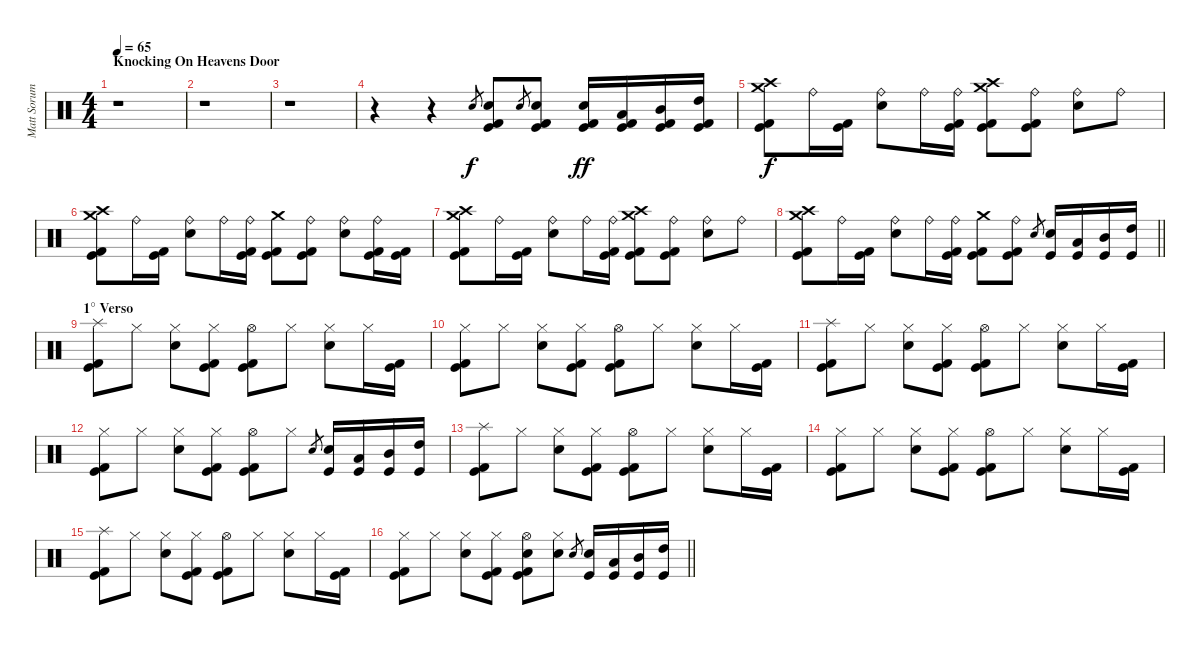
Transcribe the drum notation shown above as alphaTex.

\track ("Matt Sorum" "Matt Sorum") {instrument percussion}
\staff {score}
\articulation defaults
\ts (4 4)
\section ("" "Knocking On Heavens Door")
\tempo 65
\clef neutral
\ks c
r.1{dy f} |
r.1 |
r.1 |
r.4 r.4 "Electric Snare (hit)".8{gr} ("Electric Snare (hit)" "Kick (hit) 2" "Kick (hit)").8 "Electric Snare (hit)".8{gr} ("Electric Snare (hit)" "Kick (hit) 2" "Kick (hit)").8 ("Electric Snare (hit)" "Kick (hit) 2" "Kick (hit)").16{dy ff} ("Low Tom (hit)" "Kick (hit) 2" "Kick (hit)").16 ("Mid Tom (hit)" "Kick (hit) 2" "Kick (hit)").16 ("High Tom (hit)" "Kick (hit) 2" "Kick (hit)").16 |
("Crash medium (hit)" "Crash high (hit)" "Kick (hit) 2" "Kick (hit)").8{dy f} "Ride (bell)".16 ("Kick (hit) 2" "Kick (hit)").16 ("Ride (bell)" "Electric Snare (hit)").8 "Ride (bell)".16 ("Ride (bell)" "Kick (hit) 2" "Kick (hit)").16 ("Crash medium (hit)" "Crash high (hit)" "Kick (hit) 2" "Kick (hit)").8 ("Ride (bell)" "Kick (hit) 2" "Kick (hit)").8 ("Ride (bell)" "Electric Snare (hit)").8 "Ride (bell)".8 |
("Crash medium (hit)" "Crash high (hit)" "Kick (hit) 2" "Kick (hit)").8 "Ride (bell)".16 ("Kick (hit) 2" "Kick (hit)").16 ("Ride (bell)" "Electric Snare (hit)").8 "Ride (bell)".16 ("Ride (bell)" "Kick (hit) 2" "Kick (hit)").16 ("Crash medium (hit)" "Kick (hit) 2" "Kick (hit)").8 ("Ride (bell)" "Kick (hit) 2" "Kick (hit)").8 ("Ride (bell)" "Electric Snare (hit)").8 ("Ride (bell)" "Kick (hit) 2" "Kick (hit)").16 ("Kick (hit) 2" "Kick (hit)").16 |
("Crash medium (hit)" "Crash high (hit)" "Kick (hit) 2" "Kick (hit)").8 "Ride (bell)".16 ("Kick (hit) 2" "Kick (hit)").16 ("Ride (bell)" "Electric Snare (hit)").8 "Ride (bell)".16 ("Ride (bell)" "Kick (hit) 2" "Kick (hit)").16 ("Crash medium (hit)" "Crash high (hit)" "Kick (hit) 2" "Kick (hit)").8 ("Ride (bell)" "Kick (hit) 2" "Kick (hit)").8 ("Ride (bell)" "Electric Snare (hit)").8 "Ride (bell)".8 |
\barLineRight lightlight
("Crash medium (hit)" "Crash high (hit)" "Kick (hit) 2" "Kick (hit)").8 "Ride (bell)".16 ("Kick (hit) 2" "Kick (hit)").16 ("Ride (bell)" "Electric Snare (hit)").8 "Ride (bell)".16 ("Ride (bell)" "Kick (hit) 2" "Kick (hit)").16 ("Crash medium (hit)" "Kick (hit) 2" "Kick (hit)").8 ("Ride (bell)" "Kick (hit) 2" "Kick (hit)").8 "Electric Snare (hit)".8{gr} ("Electric Snare (hit)" "Kick (hit)").16 ("Low Tom (hit)" "Kick (hit)").16 ("Mid Tom (hit)" "Kick (hit)").16 ("High Tom (hit)" "Kick (hit)").16 |
\section ("" "1° Verso")
("Splash (hit)" "Kick (hit) 2" "Kick (hit)").8 "Hi-Hat (closed)".8 ("Hi-Hat (closed)" "Electric Snare (hit)").8 ("Hi-Hat (closed)" "Kick (hit) 2" "Kick (hit)").8 ("Hi-Hat (open)" "Kick (hit) 2" "Kick (hit)").8 "Hi-Hat (closed)".8 ("Hi-Hat (closed)" "Electric Snare (hit)").8 "Hi-Hat (closed)".16 ("Kick (hit) 2" "Kick (hit)").16 |
("Hi-Hat (closed)" "Kick (hit) 2" "Kick (hit)").8 "Hi-Hat (closed)".8 ("Hi-Hat (closed)" "Electric Snare (hit)").8 ("Hi-Hat (closed)" "Kick (hit) 2" "Kick (hit)").8 ("Hi-Hat (open)" "Kick (hit) 2" "Kick (hit)").8 "Hi-Hat (closed)".8 ("Hi-Hat (closed)" "Electric Snare (hit)").8 "Hi-Hat (closed)".16 ("Kick (hit) 2" "Kick (hit)").16 |
("Splash (hit)" "Kick (hit) 2" "Kick (hit)").8 "Hi-Hat (closed)".8 ("Hi-Hat (closed)" "Electric Snare (hit)").8 ("Hi-Hat (closed)" "Kick (hit) 2" "Kick (hit)").8 ("Hi-Hat (open)" "Kick (hit) 2" "Kick (hit)").8 "Hi-Hat (closed)".8 ("Hi-Hat (closed)" "Electric Snare (hit)").8 "Hi-Hat (closed)".16 ("Kick (hit) 2" "Kick (hit)").16 |
("Hi-Hat (closed)" "Kick (hit) 2" "Kick (hit)").8 "Hi-Hat (closed)".8 ("Hi-Hat (closed)" "Electric Snare (hit)").8 ("Hi-Hat (closed)" "Kick (hit) 2" "Kick (hit)").8 ("Hi-Hat (open)" "Kick (hit) 2" "Kick (hit)").8 "Hi-Hat (closed)".8 "Electric Snare (hit)".8{gr} ("Electric Snare (hit)" "Kick (hit)").16 ("Low Tom (hit)" "Kick (hit)").16 ("Mid Tom (hit)" "Kick (hit)").16 ("High Tom (hit)" "Kick (hit)").16 |
("Splash (hit)" "Kick (hit) 2" "Kick (hit)").8 "Hi-Hat (closed)".8 ("Hi-Hat (closed)" "Electric Snare (hit)").8 ("Hi-Hat (closed)" "Kick (hit) 2" "Kick (hit)").8 ("Hi-Hat (open)" "Kick (hit) 2" "Kick (hit)").8 "Hi-Hat (closed)".8 ("Hi-Hat (closed)" "Electric Snare (hit)").8 "Hi-Hat (closed)".16 ("Kick (hit) 2" "Kick (hit)").16 |
("Hi-Hat (closed)" "Kick (hit) 2" "Kick (hit)").8 "Hi-Hat (closed)".8 ("Hi-Hat (closed)" "Electric Snare (hit)").8 ("Hi-Hat (closed)" "Kick (hit) 2" "Kick (hit)").8 ("Hi-Hat (open)" "Kick (hit) 2" "Kick (hit)").8 "Hi-Hat (closed)".8 ("Hi-Hat (closed)" "Electric Snare (hit)").8 "Hi-Hat (closed)".16 ("Kick (hit) 2" "Kick (hit)").16 |
("Splash (hit)" "Kick (hit) 2" "Kick (hit)").8 "Hi-Hat (closed)".8 ("Hi-Hat (closed)" "Electric Snare (hit)").8 ("Hi-Hat (closed)" "Kick (hit) 2" "Kick (hit)").8 ("Hi-Hat (open)" "Kick (hit) 2" "Kick (hit)").8 "Hi-Hat (closed)".8 ("Hi-Hat (closed)" "Electric Snare (hit)").8 "Hi-Hat (closed)".16 ("Kick (hit) 2" "Kick (hit)").16 |
\barLineRight lightlight
("Hi-Hat (closed)" "Kick (hit) 2" "Kick (hit)").8 "Hi-Hat (closed)".8 ("Hi-Hat (closed)" "Electric Snare (hit)").8 ("Hi-Hat (closed)" "Kick (hit) 2" "Kick (hit)").8 ("Hi-Hat (open)" "Electric Snare (hit)" "Kick (hit) 2" "Kick (hit)").8 ("Hi-Hat (closed)" "Electric Snare (hit)").8 "Electric Snare (hit)".8{gr} ("Electric Snare (hit)" "Kick (hit)").16 ("Low Tom (hit)" "Kick (hit)").16 ("Mid Tom (hit)" "Kick (hit)").16 ("High Tom (hit)" "Kick (hit)").16
